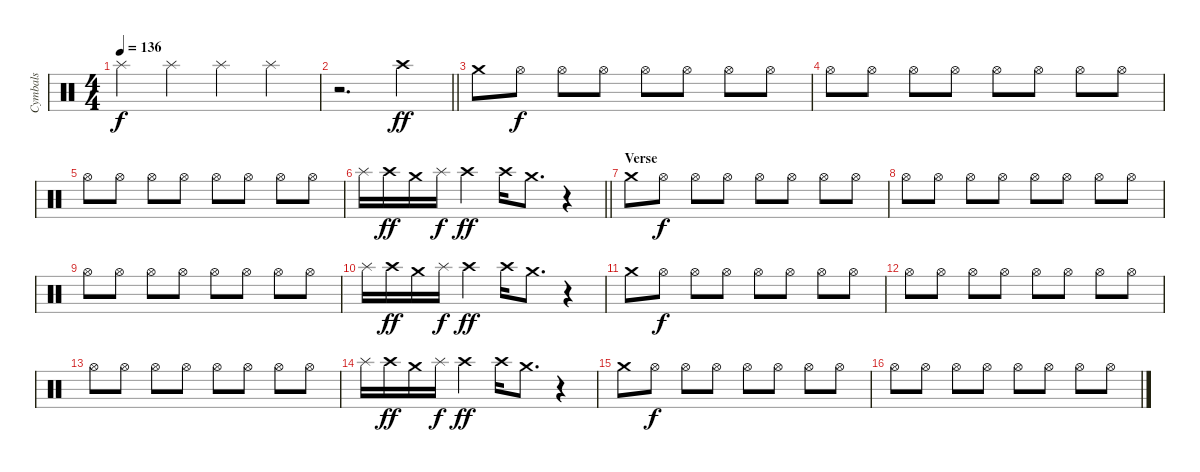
\track ("Cymbals" "Cymbals") {instrument percussion}
\staff {score}
\articulation defaults
\ts (4 4)
\tempo 136
\clef neutral
\ks c "Splash (hit)".4{dy f} "Splash (hit)".4 "Splash (hit)".4 "Splash (hit)".4
|
\barLineRight lightlight
r.2{d} "Crash high (hit)".4{dy ff} |
\section ("" "")
"Crash medium (hit)".8 "Hi-Hat (open)".8{dy f} "Hi-Hat (open)".8 "Hi-Hat (open)".8 "Hi-Hat (open)".8 "Hi-Hat (open)".8 "Hi-Hat (open)".8 "Hi-Hat (open)".8 |
"Hi-Hat (open)".8 "Hi-Hat (open)".8 "Hi-Hat (open)".8 "Hi-Hat (open)".8 "Hi-Hat (open)".8 "Hi-Hat (open)".8 "Hi-Hat (open)".8 "Hi-Hat (open)".8 |
"Hi-Hat (open)".8 "Hi-Hat (open)".8 "Hi-Hat (open)".8 "Hi-Hat (open)".8 "Hi-Hat (open)".8 "Hi-Hat (open)".8 "Hi-Hat (open)".8 "Hi-Hat (open)".8 |
\barLineRight lightlight "Splash (hit)".16 "Crash high (hit)".16{dy ff} "Crash medium (hit)".16 "Splash (hit)".16{dy f} "Crash high (hit)".4{dy ff} "Crash high (hit)".16 "Crash medium (hit)".8{d}
r.4 |
\section ("" "Verse")
"Crash medium (hit)".8 "Hi-Hat (open)".8{dy f} "Hi-Hat (open)".8 "Hi-Hat (open)".8 "Hi-Hat (open)".8 "Hi-Hat (open)".8 "Hi-Hat (open)".8 "Hi-Hat (open)".8 |
"Hi-Hat (open)".8 "Hi-Hat (open)".8 "Hi-Hat (open)".8 "Hi-Hat (open)".8 "Hi-Hat (open)".8 "Hi-Hat (open)".8 "Hi-Hat (open)".8 "Hi-Hat (open)".8 |
"Hi-Hat (open)".8 "Hi-Hat (open)".8 "Hi-Hat (open)".8 "Hi-Hat (open)".8 "Hi-Hat (open)".8 "Hi-Hat (open)".8 "Hi-Hat (open)".8 "Hi-Hat (open)".8 |
"Splash (hit)".16 "Crash high (hit)".16{dy ff} "Crash medium (hit)".16 "Splash (hit)".16{dy f} "Crash high (hit)".4{dy ff} "Crash high (hit)".16 "Crash medium (hit)".8{d} r.4 |
"Crash medium (hit)".8 "Hi-Hat (open)".8{dy f} "Hi-Hat (open)".8 "Hi-Hat (open)".8 "Hi-Hat (open)".8 "Hi-Hat (open)".8 "Hi-Hat (open)".8 "Hi-Hat (open)".8 |
"Hi-Hat (open)".8 "Hi-Hat (open)".8 "Hi-Hat (open)".8 "Hi-Hat (open)".8 "Hi-Hat (open)".8 "Hi-Hat (open)".8 "Hi-Hat (open)".8 "Hi-Hat (open)".8 |
"Hi-Hat (open)".8 "Hi-Hat (open)".8 "Hi-Hat (open)".8 "Hi-Hat (open)".8 "Hi-Hat (open)".8 "Hi-Hat (open)".8 "Hi-Hat (open)".8 "Hi-Hat (open)".8 |
"Splash (hit)".16 "Crash high (hit)".16{dy ff} "Crash medium (hit)".16 "Splash (hit)".16{dy f} "Crash high (hit)".4{dy ff} "Crash high (hit)".16 "Crash medium (hit)".8{d} r.4 |
"Crash medium (hit)".8 "Hi-Hat (open)".8{dy f} "Hi-Hat (open)".8 "Hi-Hat (open)".8 "Hi-Hat (open)".8 "Hi-Hat (open)".8 "Hi-Hat (open)".8 "Hi-Hat (open)".8 |
"Hi-Hat (open)".8 "Hi-Hat (open)".8 "Hi-Hat (open)".8 "Hi-Hat (open)".8 "Hi-Hat (open)".8 "Hi-Hat (open)".8 "Hi-Hat (open)".8 "Hi-Hat (open)".8
